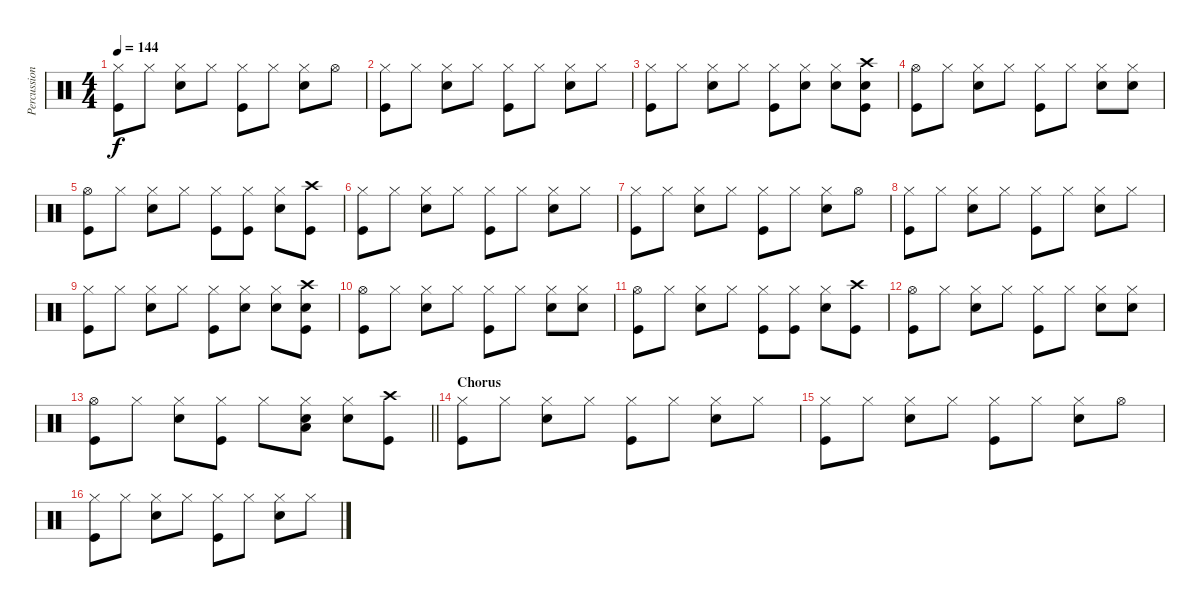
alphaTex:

\track ("Percussion" "Percussion") {instrument percussion}
\staff {score}
\articulation defaults
\ts (4 4)
\tempo 144
\clef neutral
\ks c
("Hi-Hat (closed)" "Kick (hit)").8{dy f} "Hi-Hat (closed)".8 ("Hi-Hat (closed)" "Snare (hit) 2").8 "Hi-Hat (closed)".8 ("Hi-Hat (closed)" "Kick (hit)").8 "Hi-Hat (closed)".8 ("Hi-Hat (closed)" "Snare (hit) 2").8 "Hi-Hat (open)".8 |
("Hi-Hat (closed)" "Kick (hit)").8 "Hi-Hat (closed)".8 ("Hi-Hat (closed)" "Snare (hit) 2").8 "Hi-Hat (closed)".8 ("Hi-Hat (closed)" "Kick (hit)").8 "Hi-Hat (closed)".8 ("Hi-Hat (closed)" "Snare (hit) 2").8 "Hi-Hat (closed)".8 |
("Hi-Hat (closed)" "Kick (hit)").8 "Hi-Hat (closed)".8 ("Hi-Hat (closed)" "Snare (hit) 2").8 "Hi-Hat (closed)".8 ("Hi-Hat (closed)" "Kick (hit)").8 ("Hi-Hat (closed)" "Snare (hit) 2").8 ("Hi-Hat (closed)" "Snare (hit) 2").8 ("Crash high (hit)" "Snare (hit) 2" "Kick (hit)").8 |
("Hi-Hat (open)" "Kick (hit)").8 "Hi-Hat (closed)".8 ("Hi-Hat (closed)" "Snare (hit) 2").8 "Hi-Hat (closed)".8 ("Hi-Hat (closed)" "Kick (hit)").8 "Hi-Hat (closed)".8 ("Hi-Hat (closed)" "Snare (hit) 2").8 ("Hi-Hat (closed)" "Snare (hit) 2").8 |
("Hi-Hat (open)" "Kick (hit)").8 "Hi-Hat (closed)".8 ("Hi-Hat (closed)" "Snare (hit) 2").8 "Hi-Hat (closed)".8 ("Hi-Hat (closed)" "Kick (hit)").8 ("Hi-Hat (closed)" "Kick (hit)").8 ("Hi-Hat (closed)" "Snare (hit) 2").8 ("Crash high (hit)" "Kick (hit)").8 |
("Hi-Hat (closed)" "Kick (hit)").8 "Hi-Hat (closed)".8 ("Hi-Hat (closed)" "Snare (hit) 2").8 "Hi-Hat (closed)".8 ("Hi-Hat (closed)" "Kick (hit)").8 "Hi-Hat (closed)".8 ("Hi-Hat (closed)" "Snare (hit) 2").8 "Hi-Hat (closed)".8 |
("Hi-Hat (closed)" "Kick (hit)").8 "Hi-Hat (closed)".8 ("Hi-Hat (closed)" "Snare (hit) 2").8 "Hi-Hat (closed)".8 ("Hi-Hat (closed)" "Kick (hit)").8 "Hi-Hat (closed)".8 ("Hi-Hat (closed)" "Snare (hit) 2").8 "Hi-Hat (open)".8 |
("Hi-Hat (closed)" "Kick (hit)").8 "Hi-Hat (closed)".8 ("Hi-Hat (closed)" "Snare (hit) 2").8 "Hi-Hat (closed)".8 ("Hi-Hat (closed)" "Kick (hit)").8 "Hi-Hat (closed)".8 ("Hi-Hat (closed)" "Snare (hit) 2").8 "Hi-Hat (closed)".8 |
("Hi-Hat (closed)" "Kick (hit)").8 "Hi-Hat (closed)".8 ("Hi-Hat (closed)" "Snare (hit) 2").8 "Hi-Hat (closed)".8 ("Hi-Hat (closed)" "Kick (hit)").8 ("Hi-Hat (closed)" "Snare (hit) 2").8 ("Hi-Hat (closed)" "Snare (hit) 2").8 ("Crash high (hit)" "Snare (hit) 2" "Kick (hit)").8 |
("Hi-Hat (open)" "Kick (hit)").8 "Hi-Hat (closed)".8 ("Hi-Hat (closed)" "Snare (hit) 2").8 "Hi-Hat (closed)".8 ("Hi-Hat (closed)" "Kick (hit)").8 "Hi-Hat (closed)".8 ("Hi-Hat (closed)" "Snare (hit) 2").8 ("Hi-Hat (closed)" "Snare (hit) 2").8 |
("Hi-Hat (open)" "Kick (hit)").8 "Hi-Hat (closed)".8 ("Hi-Hat (closed)" "Snare (hit) 2").8 "Hi-Hat (closed)".8 ("Hi-Hat (closed)" "Kick (hit)").8 ("Hi-Hat (closed)" "Kick (hit)").8 ("Hi-Hat (closed)" "Snare (hit) 2").8 ("Crash high (hit)" "Kick (hit)").8 |
("Hi-Hat (open)" "Kick (hit)").8 "Hi-Hat (closed)".8 ("Hi-Hat (closed)" "Snare (hit) 2").8 "Hi-Hat (closed)".8 ("Hi-Hat (closed)" "Kick (hit)").8 "Hi-Hat (closed)".8 ("Hi-Hat (closed)" "Snare (hit) 2").8 ("Hi-Hat (closed)" "Snare (hit) 2").8 |
\barLineRight lightlight
("Hi-Hat (open)" "Kick (hit)").8 "Hi-Hat (closed)".8 ("Hi-Hat (closed)" "Snare (hit) 2").8 ("Hi-Hat (closed)" "Kick (hit)").8 "Hi-Hat (closed)".8 ("Hi-Hat (closed)" "Low Floor Tom (hit)" "Snare (hit) 2").8 ("Hi-Hat (closed)" "Snare (hit) 2").8 ("Crash high (hit)" "Kick (hit)").8 |
\section ("" "Chorus")
("Hi-Hat (closed)" "Kick (hit)").8 "Hi-Hat (closed)".8 ("Hi-Hat (closed)" "Snare (hit) 2").8 "Hi-Hat (closed)".8 ("Hi-Hat (closed)" "Kick (hit)").8 "Hi-Hat (closed)".8 ("Hi-Hat (closed)" "Snare (hit) 2").8 "Hi-Hat (closed)".8 |
("Hi-Hat (closed)" "Kick (hit)").8 "Hi-Hat (closed)".8 ("Hi-Hat (closed)" "Snare (hit) 2").8 "Hi-Hat (closed)".8 ("Hi-Hat (closed)" "Kick (hit)").8 "Hi-Hat (closed)".8 ("Hi-Hat (closed)" "Snare (hit) 2").8 "Hi-Hat (open)".8 |
("Hi-Hat (closed)" "Kick (hit)").8 "Hi-Hat (closed)".8 ("Hi-Hat (closed)" "Snare (hit) 2").8 "Hi-Hat (closed)".8 ("Hi-Hat (closed)" "Kick (hit)").8 "Hi-Hat (closed)".8 ("Hi-Hat (closed)" "Snare (hit) 2").8 "Hi-Hat (closed)".8
